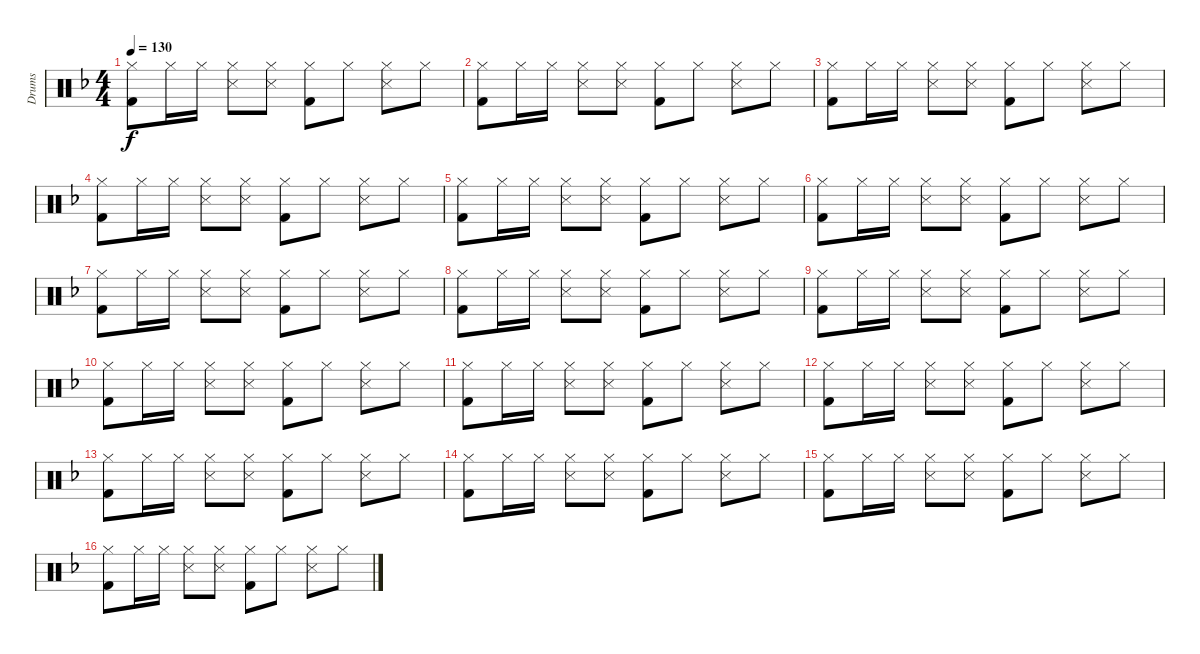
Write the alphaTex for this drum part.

\track ("Drums" "Drums") {instrument percussion}
\staff {score}
\articulation defaults
\ts (4 4)
\tempo 130
\clef neutral
\ks f
("Hi-Hat (closed)" "Kick (hit) 2").8{dy f} "Hi-Hat (closed)".16 "Hi-Hat (closed)".16 ("Hi-Hat (closed)" "Snare (side stick) 3").8 ("Hi-Hat (closed)" "Snare (side stick) 3").8 ("Hi-Hat (closed)" "Kick (hit) 2").8 "Hi-Hat (closed)".8 ("Hi-Hat (closed)" "Snare (side stick) 3").8 "Hi-Hat (closed)".8 |
("Hi-Hat (closed)" "Kick (hit) 2").8 "Hi-Hat (closed)".16 "Hi-Hat (closed)".16 ("Hi-Hat (closed)" "Snare (side stick) 3").8 ("Hi-Hat (closed)" "Snare (side stick) 3").8 ("Hi-Hat (closed)" "Kick (hit) 2").8 "Hi-Hat (closed)".8 ("Hi-Hat (closed)" "Snare (side stick) 3").8 "Hi-Hat (closed)".8 |
("Hi-Hat (closed)" "Kick (hit) 2").8 "Hi-Hat (closed)".16 "Hi-Hat (closed)".16 ("Hi-Hat (closed)" "Snare (side stick) 3").8 ("Hi-Hat (closed)" "Snare (side stick) 3").8 ("Hi-Hat (closed)" "Kick (hit) 2").8 "Hi-Hat (closed)".8 ("Hi-Hat (closed)" "Snare (side stick) 3").8 "Hi-Hat (closed)".8 |
("Hi-Hat (closed)" "Kick (hit) 2").8 "Hi-Hat (closed)".16 "Hi-Hat (closed)".16 ("Hi-Hat (closed)" "Snare (side stick) 3").8 ("Hi-Hat (closed)" "Snare (side stick) 3").8 ("Hi-Hat (closed)" "Kick (hit) 2").8 "Hi-Hat (closed)".8 ("Hi-Hat (closed)" "Snare (side stick) 3").8 "Hi-Hat (closed)".8 |
("Hi-Hat (closed)" "Kick (hit) 2").8 "Hi-Hat (closed)".16 "Hi-Hat (closed)".16 ("Hi-Hat (closed)" "Snare (side stick) 3").8 ("Hi-Hat (closed)" "Snare (side stick) 3").8 ("Hi-Hat (closed)" "Kick (hit) 2").8 "Hi-Hat (closed)".8 ("Hi-Hat (closed)" "Snare (side stick) 3").8 "Hi-Hat (closed)".8 |
("Hi-Hat (closed)" "Kick (hit) 2").8 "Hi-Hat (closed)".16 "Hi-Hat (closed)".16 ("Hi-Hat (closed)" "Snare (side stick) 3").8 ("Hi-Hat (closed)" "Snare (side stick) 3").8 ("Hi-Hat (closed)" "Kick (hit) 2").8 "Hi-Hat (closed)".8 ("Hi-Hat (closed)" "Snare (side stick) 3").8 "Hi-Hat (closed)".8 |
("Hi-Hat (closed)" "Kick (hit) 2").8 "Hi-Hat (closed)".16 "Hi-Hat (closed)".16 ("Hi-Hat (closed)" "Snare (side stick) 3").8 ("Hi-Hat (closed)" "Snare (side stick) 3").8 ("Hi-Hat (closed)" "Kick (hit) 2").8 "Hi-Hat (closed)".8 ("Hi-Hat (closed)" "Snare (side stick) 3").8 "Hi-Hat (closed)".8 |
("Hi-Hat (closed)" "Kick (hit) 2").8 "Hi-Hat (closed)".16 "Hi-Hat (closed)".16 ("Hi-Hat (closed)" "Snare (side stick) 3").8 ("Hi-Hat (closed)" "Snare (side stick) 3").8 ("Hi-Hat (closed)" "Kick (hit) 2").8 "Hi-Hat (closed)".8 ("Hi-Hat (closed)" "Snare (side stick) 3").8 "Hi-Hat (closed)".8 |
("Hi-Hat (closed)" "Kick (hit) 2").8 "Hi-Hat (closed)".16 "Hi-Hat (closed)".16 ("Hi-Hat (closed)" "Snare (side stick) 3").8 ("Hi-Hat (closed)" "Snare (side stick) 3").8 ("Hi-Hat (closed)" "Kick (hit) 2").8 "Hi-Hat (closed)".8 ("Hi-Hat (closed)" "Snare (side stick) 3").8 "Hi-Hat (closed)".8 |
("Hi-Hat (closed)" "Kick (hit) 2").8 "Hi-Hat (closed)".16 "Hi-Hat (closed)".16 ("Hi-Hat (closed)" "Snare (side stick) 3").8 ("Hi-Hat (closed)" "Snare (side stick) 3").8 ("Hi-Hat (closed)" "Kick (hit) 2").8 "Hi-Hat (closed)".8 ("Hi-Hat (closed)" "Snare (side stick) 3").8 "Hi-Hat (closed)".8 |
("Hi-Hat (closed)" "Kick (hit) 2").8 "Hi-Hat (closed)".16 "Hi-Hat (closed)".16 ("Hi-Hat (closed)" "Snare (side stick) 3").8 ("Hi-Hat (closed)" "Snare (side stick) 3").8 ("Hi-Hat (closed)" "Kick (hit) 2").8 "Hi-Hat (closed)".8 ("Hi-Hat (closed)" "Snare (side stick) 3").8 "Hi-Hat (closed)".8 |
("Hi-Hat (closed)" "Kick (hit) 2").8 "Hi-Hat (closed)".16 "Hi-Hat (closed)".16 ("Hi-Hat (closed)" "Snare (side stick) 3").8 ("Hi-Hat (closed)" "Snare (side stick) 3").8 ("Hi-Hat (closed)" "Kick (hit) 2").8 "Hi-Hat (closed)".8 ("Hi-Hat (closed)" "Snare (side stick) 3").8 "Hi-Hat (closed)".8 |
("Hi-Hat (closed)" "Kick (hit) 2").8 "Hi-Hat (closed)".16 "Hi-Hat (closed)".16 ("Hi-Hat (closed)" "Snare (side stick) 3").8 ("Hi-Hat (closed)" "Snare (side stick) 3").8 ("Hi-Hat (closed)" "Kick (hit) 2").8 "Hi-Hat (closed)".8 ("Hi-Hat (closed)" "Snare (side stick) 3").8 "Hi-Hat (closed)".8 |
("Hi-Hat (closed)" "Kick (hit) 2").8 "Hi-Hat (closed)".16 "Hi-Hat (closed)".16 ("Hi-Hat (closed)" "Snare (side stick) 3").8 ("Hi-Hat (closed)" "Snare (side stick) 3").8 ("Hi-Hat (closed)" "Kick (hit) 2").8 "Hi-Hat (closed)".8 ("Hi-Hat (closed)" "Snare (side stick) 3").8 "Hi-Hat (closed)".8 |
("Hi-Hat (closed)" "Kick (hit) 2").8 "Hi-Hat (closed)".16 "Hi-Hat (closed)".16 ("Hi-Hat (closed)" "Snare (side stick) 3").8 ("Hi-Hat (closed)" "Snare (side stick) 3").8 ("Hi-Hat (closed)" "Kick (hit) 2").8 "Hi-Hat (closed)".8 ("Hi-Hat (closed)" "Snare (side stick) 3").8 "Hi-Hat (closed)".8 |
("Hi-Hat (closed)" "Kick (hit) 2").8 "Hi-Hat (closed)".16 "Hi-Hat (closed)".16 ("Hi-Hat (closed)" "Snare (side stick) 3").8 ("Hi-Hat (closed)" "Snare (side stick) 3").8 ("Hi-Hat (closed)" "Kick (hit) 2").8 "Hi-Hat (closed)".8 ("Hi-Hat (closed)" "Snare (side stick) 3").8 "Hi-Hat (closed)".8
